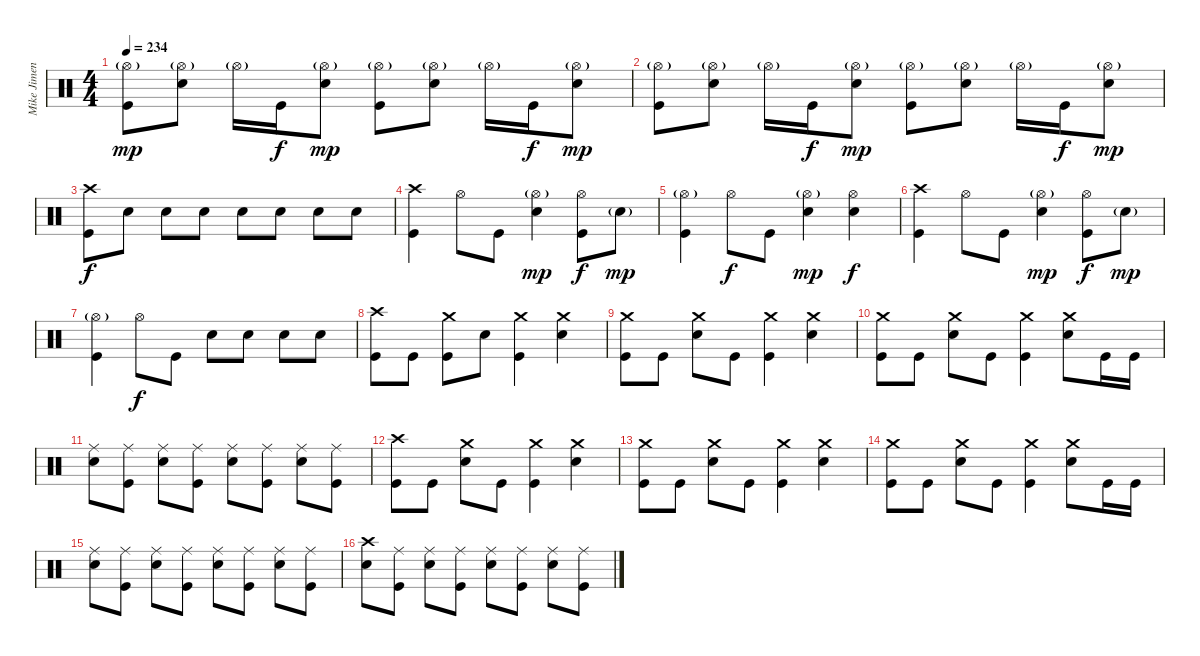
\track ("Mike Jimenez" "Mike Jimen") {instrument percussion}
\staff {score}
\articulation defaults
\ts (4 4)
\tempo 234
\clef neutral
\ks c
("Hi-Hat (open)"{g} "Kick (hit)").8{dy mp} ("Hi-Hat (open)"{g} "Electric Snare (hit)").8 "Hi-Hat (open)"{g}.16 "Kick (hit)".16{dy f} ("Hi-Hat (open)"{g} "Electric Snare (hit)").8{dy mp} ("Hi-Hat (open)"{g} "Kick (hit)").8 ("Hi-Hat (open)"{g} "Electric Snare (hit)").8 "Hi-Hat (open)"{g}.16 "Kick (hit)".16{dy f} ("Hi-Hat (open)"{g} "Electric Snare (hit)").8{dy mp} |
("Hi-Hat (open)"{g} "Kick (hit)").8 ("Hi-Hat (open)"{g} "Electric Snare (hit)").8 "Hi-Hat (open)"{g}.16 "Kick (hit)".16{dy f} ("Hi-Hat (open)"{g} "Electric Snare (hit)").8{dy mp} ("Hi-Hat (open)"{g} "Kick (hit)").8 ("Hi-Hat (open)"{g} "Electric Snare (hit)").8 "Hi-Hat (open)"{g}.16 "Kick (hit)".16{dy f} ("Hi-Hat (open)"{g} "Electric Snare (hit)").8{dy mp} |
("Crash high (hit)" "Kick (hit)").8{dy f} "Electric Snare (hit)".8 "Electric Snare (hit)".8 "Electric Snare (hit)".8 "Electric Snare (hit)".8 "Electric Snare (hit)".8 "Electric Snare (hit)".8 "Electric Snare (hit)".8 |
("Crash high (hit)" "Kick (hit)").4 "Hi-Hat (open)".8 "Kick (hit)".8 ("Hi-Hat (open)"{g} "Electric Snare (hit)").4{dy mp} ("Hi-Hat (open)" "Kick (hit)").8{dy f} "Electric Snare (hit)"{g}.8{dy mp} |
("Hi-Hat (open)"{g} "Kick (hit)").4 "Hi-Hat (open)".8{dy f} "Kick (hit)".8 ("Hi-Hat (open)"{g} "Electric Snare (hit)").4{dy mp} ("Hi-Hat (open)" "Electric Snare (hit)").4{dy f} |
("Crash high (hit)" "Kick (hit)").4 "Hi-Hat (open)".8 "Kick (hit)".8 ("Hi-Hat (open)"{g} "Electric Snare (hit)").4{dy mp} ("Hi-Hat (open)" "Kick (hit)").8{dy f} "Electric Snare (hit)"{g}.8{dy mp} |
("Hi-Hat (open)"{g} "Kick (hit)").4 "Hi-Hat (open)".8{dy f} "Kick (hit)".8 "Electric Snare (hit)".8 "Electric Snare (hit)".8 "Electric Snare (hit)".8 "Electric Snare (hit)".8 |
("Crash high (hit)" "Kick (hit)").8 "Kick (hit)".8 ("Crash medium (hit)" "Kick (hit)").8 "Electric Snare (hit)".8 ("Crash medium (hit)" "Kick (hit)").4 ("Crash medium (hit)" "Electric Snare (hit)").4 |
("Crash medium (hit)" "Kick (hit)").8 "Kick (hit)".8 ("Crash medium (hit)" "Electric Snare (hit)").8 "Kick (hit)".8 ("Crash medium (hit)" "Kick (hit)").4 ("Crash medium (hit)" "Electric Snare (hit)").4 |
("Crash medium (hit)" "Kick (hit)").8 "Kick (hit)".8 ("Crash medium (hit)" "Electric Snare (hit)").8 "Kick (hit)".8 ("Crash medium (hit)" "Kick (hit)").4 ("Crash medium (hit)" "Electric Snare (hit)").8 "Kick (hit)".16 "Kick (hit)".16 |
("Ride (middle)" "Electric Snare (hit)").8 ("Ride (middle)" "Kick (hit)").8 ("Ride (middle)" "Electric Snare (hit)").8 ("Ride (middle)" "Kick (hit)").8 ("Ride (middle)" "Electric Snare (hit)").8 ("Ride (middle)" "Kick (hit)").8 ("Ride (middle)" "Electric Snare (hit)").8 ("Ride (middle)" "Kick (hit)").8 |
("Crash high (hit)" "Kick (hit)").8 "Kick (hit)".8 ("Crash medium (hit)" "Electric Snare (hit)").8 "Kick (hit)".8 ("Crash medium (hit)" "Kick (hit)").4 ("Crash medium (hit)" "Electric Snare (hit)").4 |
("Crash medium (hit)" "Kick (hit)").8 "Kick (hit)".8 ("Crash medium (hit)" "Electric Snare (hit)").8 "Kick (hit)".8 ("Crash medium (hit)" "Kick (hit)").4 ("Crash medium (hit)" "Electric Snare (hit)").4 |
("Crash medium (hit)" "Kick (hit)").8 "Kick (hit)".8 ("Crash medium (hit)" "Electric Snare (hit)").8 "Kick (hit)".8 ("Crash medium (hit)" "Kick (hit)").4 ("Crash medium (hit)" "Electric Snare (hit)").8 "Kick (hit)".16 "Kick (hit)".16 |
("Ride (middle)" "Electric Snare (hit)").8 ("Ride (middle)" "Kick (hit)").8 ("Ride (middle)" "Electric Snare (hit)").8 ("Ride (middle)" "Kick (hit)").8 ("Ride (middle)" "Electric Snare (hit)").8 ("Ride (middle)" "Kick (hit)").8 ("Ride (middle)" "Electric Snare (hit)").8 ("Ride (middle)" "Kick (hit)").8 |
("Crash high (hit)" "Electric Snare (hit)").8 ("Ride (middle)" "Kick (hit)").8 ("Ride (middle)" "Electric Snare (hit)").8 ("Ride (middle)" "Kick (hit)").8 ("Ride (middle)" "Electric Snare (hit)").8 ("Ride (middle)" "Kick (hit)").8 ("Ride (middle)" "Electric Snare (hit)").8 ("Ride (middle)" "Kick (hit)").8
